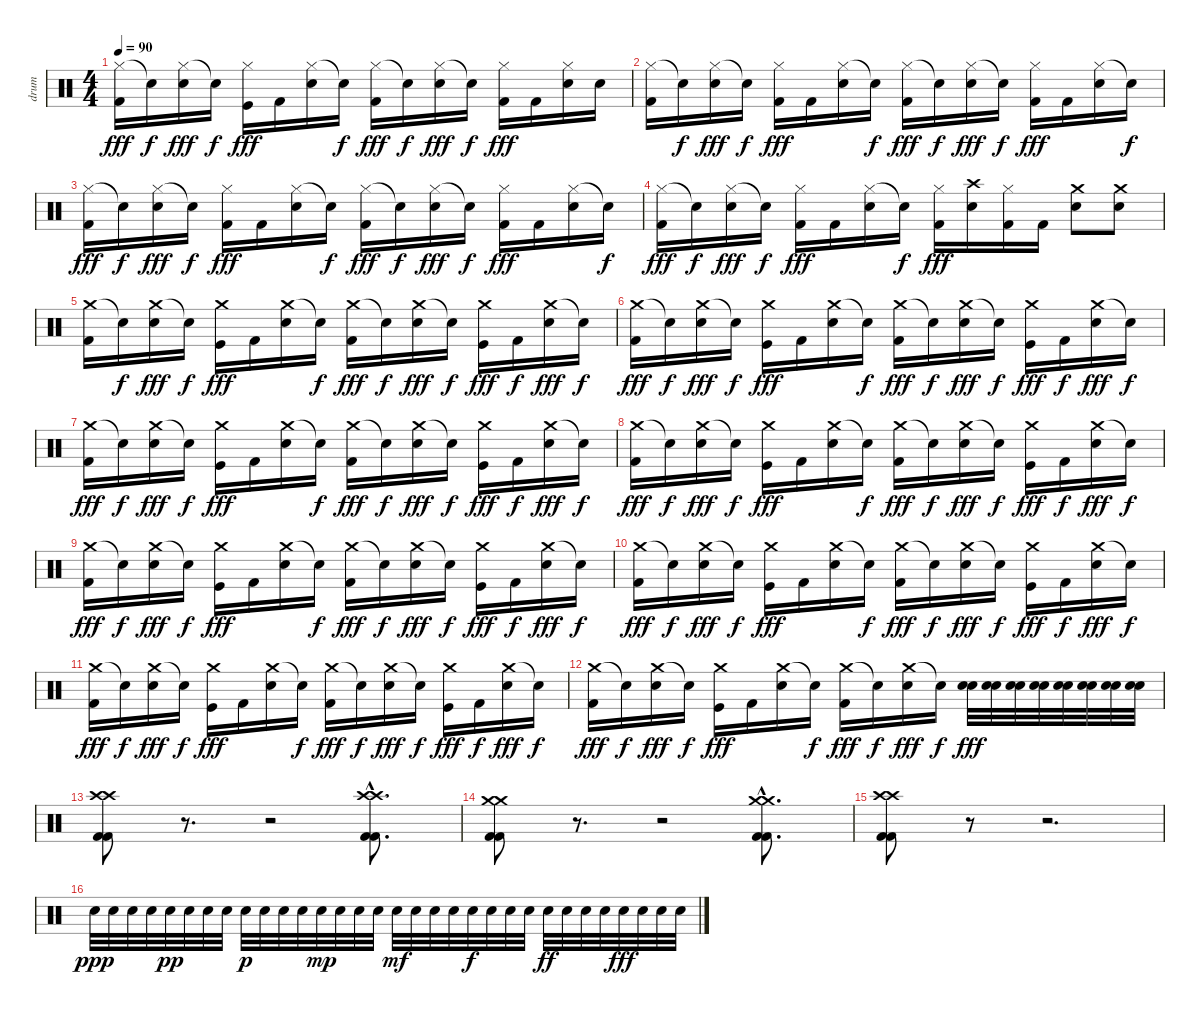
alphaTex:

\track ("drum" "drum") {instrument percussion}
\staff {score}
\articulation defaults
\ts (4 4)
\tempo 90
\clef neutral
\ks c
("Hi-Hat (closed)" "Kick (hit) 2").16{dy fff} "Snare (hit)"{t}.16{dy f} ("Hi-Hat (closed)" "Electric Snare (hit)").16{dy fff} "Snare (hit)"{t}.16{dy f} ("Hi-Hat (closed)" "Kick (hit)").16{dy fff} "Kick (hit) 2".16 ("Hi-Hat (closed)" "Electric Snare (hit)").16 "Snare (hit)"{t}.16{dy f} ("Hi-Hat (closed)" "Kick (hit) 2").16{dy fff} "Snare (hit)"{t}.16{dy f} ("Hi-Hat (closed)" "Electric Snare (hit)").16{dy fff} "Snare (hit)"{t}.16{dy f} ("Hi-Hat (closed)" "Kick (hit) 2").16{dy fff} "Kick (hit) 2".16 ("Hi-Hat (closed)" "Electric Snare (hit)").16 "Electric Snare (hit)".16 |
("Hi-Hat (closed)" "Kick (hit) 2").16 "Snare (hit)"{t}.16{dy f} ("Hi-Hat (closed)" "Electric Snare (hit)").16{dy fff} "Snare (hit)"{t}.16{dy f} ("Hi-Hat (closed)" "Kick (hit) 2").16{dy fff} "Kick (hit) 2".16 ("Hi-Hat (closed)" "Electric Snare (hit)").16 "Snare (hit)"{t}.16{dy f} ("Hi-Hat (closed)" "Kick (hit) 2").16{dy fff} "Snare (hit)"{t}.16{dy f} ("Hi-Hat (closed)" "Electric Snare (hit)").16{dy fff} "Snare (hit)"{t}.16{dy f} ("Hi-Hat (closed)" "Kick (hit) 2").16{dy fff} "Kick (hit) 2".16 ("Hi-Hat (closed)" "Electric Snare (hit)").16 "Snare (hit)"{t}.16{dy f} |
("Hi-Hat (closed)" "Kick (hit) 2").16{dy fff} "Snare (hit)"{t}.16{dy f} ("Hi-Hat (closed)" "Electric Snare (hit)").16{dy fff} "Snare (hit)"{t}.16{dy f} ("Hi-Hat (closed)" "Kick (hit) 2").16{dy fff} "Kick (hit) 2".16 ("Hi-Hat (closed)" "Electric Snare (hit)").16 "Snare (hit)"{t}.16{dy f} ("Hi-Hat (closed)" "Kick (hit) 2").16{dy fff} "Snare (hit)"{t}.16{dy f} ("Hi-Hat (closed)" "Electric Snare (hit)").16{dy fff} "Snare (hit)"{t}.16{dy f} ("Hi-Hat (closed)" "Kick (hit) 2").16{dy fff} "Kick (hit) 2".16 ("Hi-Hat (closed)" "Electric Snare (hit)").16 "Snare (hit)"{t}.16{dy f} |
("Hi-Hat (closed)" "Kick (hit) 2").16{dy fff} "Snare (hit)"{t}.16{dy f} ("Hi-Hat (closed)" "Electric Snare (hit)").16{dy fff} "Snare (hit)"{t}.16{dy f} ("Hi-Hat (closed)" "Kick (hit) 2").16{dy fff} "Kick (hit) 2".16 ("Hi-Hat (closed)" "Electric Snare (hit)").16 "Snare (hit)"{t}.16{dy f} ("Hi-Hat (closed)" "Kick (hit) 2").16{dy fff} ("Crash high (hit)" "Electric Snare (hit)").16 ("Hi-Hat (closed)" "Kick (hit) 2").16 "Kick (hit) 2".16 ("Crash medium (hit)" "Electric Snare (hit)").8 ("Crash medium (hit)" "Electric Snare (hit)").8 |
("Crash medium (hit)" "Kick (hit) 2").16 "Snare (hit)"{t}.16{dy f} ("Crash medium (hit)" "Electric Snare (hit)").16{dy fff} "Snare (hit)"{t}.16{dy f} ("Crash medium (hit)" "Kick (hit)").16{dy fff} "Kick (hit) 2".16 ("Crash medium (hit)" "Electric Snare (hit)").16 "Snare (hit)"{t}.16{dy f} ("Crash medium (hit)" "Kick (hit) 2").16{dy fff} "Snare (hit)"{t}.16{dy f} ("Crash medium (hit)" "Electric Snare (hit)").16{dy fff} "Snare (hit)"{t}.16{dy f} ("Crash medium (hit)" "Kick (hit)").16{dy fff} "Kick (hit) 2".16{dy f} ("Crash medium (hit)" "Electric Snare (hit)").16{dy fff} "Snare (hit)"{t}.16{dy f} |
("Crash medium (hit)" "Kick (hit) 2").16{dy fff} "Snare (hit)"{t}.16{dy f} ("Crash medium (hit)" "Electric Snare (hit)").16{dy fff} "Snare (hit)"{t}.16{dy f} ("Crash medium (hit)" "Kick (hit)").16{dy fff} "Kick (hit) 2".16 ("Crash medium (hit)" "Electric Snare (hit)").16 "Snare (hit)"{t}.16{dy f} ("Crash medium (hit)" "Kick (hit) 2").16{dy fff} "Snare (hit)"{t}.16{dy f} ("Crash medium (hit)" "Electric Snare (hit)").16{dy fff} "Snare (hit)"{t}.16{dy f} ("Crash medium (hit)" "Kick (hit)").16{dy fff} "Kick (hit) 2".16{dy f} ("Crash medium (hit)" "Electric Snare (hit)").16{dy fff} "Snare (hit)"{t}.16{dy f} |
("Crash medium (hit)" "Kick (hit) 2").16{dy fff} "Snare (hit)"{t}.16{dy f} ("Crash medium (hit)" "Electric Snare (hit)").16{dy fff} "Snare (hit)"{t}.16{dy f} ("Crash medium (hit)" "Kick (hit)").16{dy fff} "Kick (hit) 2".16 ("Crash medium (hit)" "Electric Snare (hit)").16 "Snare (hit)"{t}.16{dy f} ("Crash medium (hit)" "Kick (hit) 2").16{dy fff} "Snare (hit)"{t}.16{dy f} ("Crash medium (hit)" "Electric Snare (hit)").16{dy fff} "Snare (hit)"{t}.16{dy f} ("Crash medium (hit)" "Kick (hit)").16{dy fff} "Kick (hit) 2".16{dy f} ("Crash medium (hit)" "Electric Snare (hit)").16{dy fff} "Snare (hit)"{t}.16{dy f} |
("Crash medium (hit)" "Kick (hit) 2").16{dy fff} "Snare (hit)"{t}.16{dy f} ("Crash medium (hit)" "Electric Snare (hit)").16{dy fff} "Snare (hit)"{t}.16{dy f} ("Crash medium (hit)" "Kick (hit)").16{dy fff} "Kick (hit) 2".16 ("Crash medium (hit)" "Electric Snare (hit)").16 "Snare (hit)"{t}.16{dy f} ("Crash medium (hit)" "Kick (hit) 2").16{dy fff} "Snare (hit)"{t}.16{dy f} ("Crash medium (hit)" "Electric Snare (hit)").16{dy fff} "Snare (hit)"{t}.16{dy f} ("Crash medium (hit)" "Kick (hit)").16{dy fff} "Kick (hit) 2".16{dy f} ("Crash medium (hit)" "Electric Snare (hit)").16{dy fff} "Snare (hit)"{t}.16{dy f} |
("Crash medium (hit)" "Kick (hit) 2").16{dy fff} "Snare (hit)"{t}.16{dy f} ("Crash medium (hit)" "Electric Snare (hit)").16{dy fff} "Snare (hit)"{t}.16{dy f} ("Crash medium (hit)" "Kick (hit)").16{dy fff} "Kick (hit) 2".16 ("Crash medium (hit)" "Electric Snare (hit)").16 "Snare (hit)"{t}.16{dy f} ("Crash medium (hit)" "Kick (hit) 2").16{dy fff} "Snare (hit)"{t}.16{dy f} ("Crash medium (hit)" "Electric Snare (hit)").16{dy fff} "Snare (hit)"{t}.16{dy f} ("Crash medium (hit)" "Kick (hit)").16{dy fff} "Kick (hit) 2".16{dy f} ("Crash medium (hit)" "Electric Snare (hit)").16{dy fff} "Snare (hit)"{t}.16{dy f} |
("Crash medium (hit)" "Kick (hit) 2").16{dy fff} "Snare (hit)"{t}.16{dy f} ("Crash medium (hit)" "Electric Snare (hit)").16{dy fff} "Snare (hit)"{t}.16{dy f} ("Crash medium (hit)" "Kick (hit)").16{dy fff} "Kick (hit) 2".16 ("Crash medium (hit)" "Electric Snare (hit)").16 "Snare (hit)"{t}.16{dy f} ("Crash medium (hit)" "Kick (hit) 2").16{dy fff} "Snare (hit)"{t}.16{dy f} ("Crash medium (hit)" "Electric Snare (hit)").16{dy fff} "Snare (hit)"{t}.16{dy f} ("Crash medium (hit)" "Kick (hit)").16{dy fff} "Kick (hit) 2".16{dy f} ("Crash medium (hit)" "Electric Snare (hit)").16{dy fff} "Snare (hit)"{t}.16{dy f} |
("Crash medium (hit)" "Kick (hit) 2").16{dy fff} "Snare (hit)"{t}.16{dy f} ("Crash medium (hit)" "Electric Snare (hit)").16{dy fff} "Snare (hit)"{t}.16{dy f} ("Crash medium (hit)" "Kick (hit)").16{dy fff} "Kick (hit) 2".16 ("Crash medium (hit)" "Electric Snare (hit)").16 "Snare (hit)"{t}.16{dy f} ("Crash medium (hit)" "Kick (hit) 2").16{dy fff} "Snare (hit)"{t}.16{dy f} ("Crash medium (hit)" "Electric Snare (hit)").16{dy fff} "Snare (hit)"{t}.16{dy f} ("Crash medium (hit)" "Kick (hit)").16{dy fff} "Kick (hit) 2".16{dy f} ("Crash medium (hit)" "Electric Snare (hit)").16{dy fff} "Snare (hit)"{t}.16{dy f} |
("Crash medium (hit)" "Kick (hit) 2").16{dy fff} "Snare (hit)"{t}.16{dy f} ("Crash medium (hit)" "Electric Snare (hit)").16{dy fff} "Snare (hit)"{t}.16{dy f} ("Crash medium (hit)" "Kick (hit)").16{dy fff} "Kick (hit) 2".16 ("Crash medium (hit)" "Electric Snare (hit)").16 "Snare (hit)"{t}.16{dy f} ("Crash medium (hit)" "Kick (hit) 2").16{dy fff} "Snare (hit)"{t}.16{dy f} ("Crash medium (hit)" "Electric Snare (hit)").16{dy fff} "Snare (hit)"{t}.16{dy f} ("Electric Snare (hit)" "Electric Snare (hit)").32{dy fff} ("Electric Snare (hit)" "Electric Snare (hit)").32 ("Electric Snare (hit)" "Electric Snare (hit)").32 ("Electric Snare (hit)" "Electric Snare (hit)").32 ("Electric Snare (hit)" "Electric Snare (hit)").32 ("Electric Snare (hit)" "Electric Snare (hit)").32 ("Electric Snare (hit)" "Electric Snare (hit)").32 ("Electric Snare (hit)" "Electric Snare (hit)").32 |
("Crash high (hit)" "Crash high (hit)" "Kick (hit) 2" "Kick (hit) 2").8 r.8{d} r.2 ("Crash high (hit)"{hac} "Crash high (hit)"{hac} "Kick (hit) 2"{hac} "Kick (hit) 2"{hac}).8{d} |
("Crash medium (hit)" "Crash medium (hit)" "Kick (hit) 2" "Kick (hit) 2").8 r.8{d} r.2 ("Crash medium (hit)"{hac} "Crash medium (hit)"{hac} "Kick (hit) 2"{hac} "Kick (hit) 2"{hac}).8{d} |
("Crash high (hit)" "Crash high (hit)" "Kick (hit) 2" "Kick (hit) 2").8 r.8 r.2{d} |
"Electric Snare (hit)".32{dy ppp} "Electric Snare (hit)".32 "Electric Snare (hit)".32 "Electric Snare (hit)".32 "Electric Snare (hit)".32{dy pp} "Electric Snare (hit)".32 "Electric Snare (hit)".32 "Electric Snare (hit)".32 "Electric Snare (hit)".32{dy p} "Electric Snare (hit)".32 "Electric Snare (hit)".32 "Electric Snare (hit)".32 "Electric Snare (hit)".32{dy mp} "Electric Snare (hit)".32 "Electric Snare (hit)".32 "Electric Snare (hit)".32 "Electric Snare (hit)".32{dy mf} "Electric Snare (hit)".32 "Electric Snare (hit)".32 "Electric Snare (hit)".32 "Electric Snare (hit)".32{dy f} "Electric Snare (hit)".32 "Electric Snare (hit)".32 "Electric Snare (hit)".32 "Electric Snare (hit)".32{dy ff} "Electric Snare (hit)".32 "Electric Snare (hit)".32 "Electric Snare (hit)".32 "Electric Snare (hit)".32{dy fff} "Electric Snare (hit)".32 "Electric Snare (hit)".32 "Electric Snare (hit)".32
